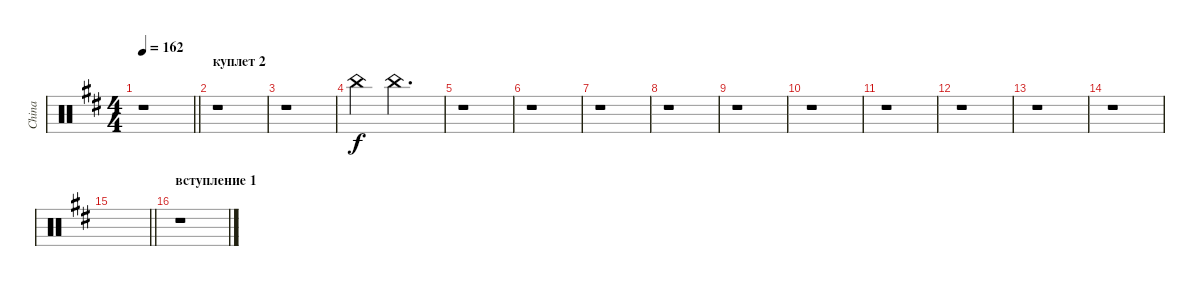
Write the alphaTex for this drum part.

\track ("China" "China") {instrument percussion}
\staff {score}
\articulation defaults
\ts (4 4)
\tempo 162
\clef neutral
\barLineRight lightlight
\ks bminor
r.1{dy f} |
\section ("" "куплет 2")
r.1 |
r.1 |
"China (hit)".4 "China (hit)".2{d} |
r.1 |
r.1 |
r.1 |
r.1 |
r.1 |
r.1 |
r.1 |
r.1 |
r.1 |
r.1 |
\barLineRight lightlight
|
\section ("" "вступление 1")
r.1
